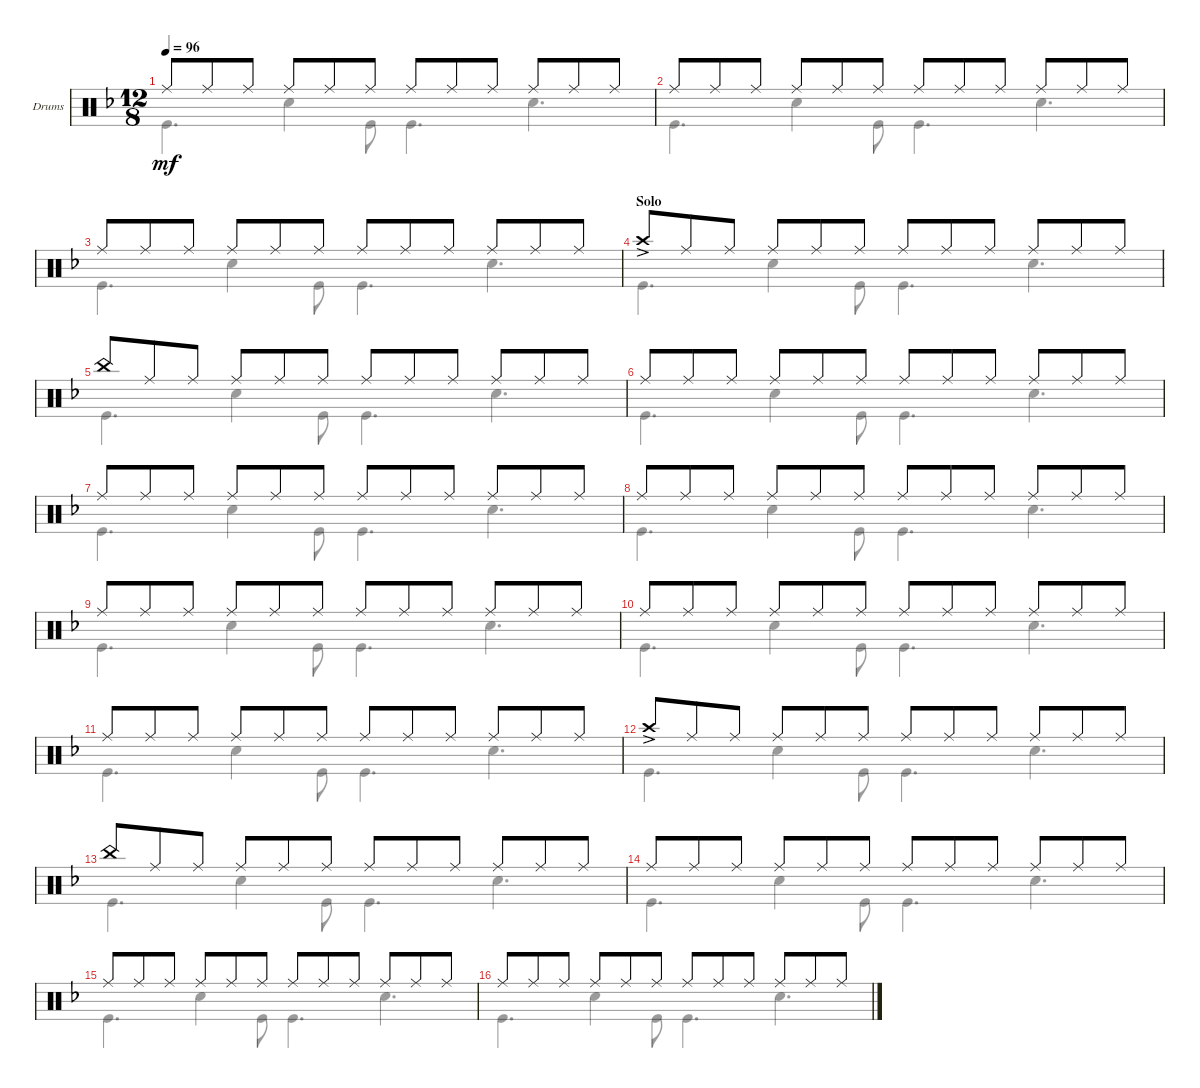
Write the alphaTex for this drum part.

\defaultSystemsLayout 4
\bracketExtendMode nobrackets
\firstSystemTrackNameOrientation horizontal
\otherSystemsTrackNameOrientation horizontal
\track ("Drumkit" "Drums") {multiBarRest instrument percussion}
\staff {score}
\articulation defaults
\voice
\ts (12 8)
\tempo 96
\clef neutral
\ks dminor "Ride (middle)".8{dy mf} "Ride (middle)".8 "Ride (middle)".8 "Ride (middle)".8 "Ride (middle)".8 "Ride (middle)".8 "Ride (middle)".8 "Ride (middle)".8 "Ride (middle)".8 "Ride (middle)".8 "Ride (middle)".8 "Ride (middle)".8
|
"Ride (middle)".8 "Ride (middle)".8 "Ride (middle)".8 "Ride (middle)".8 "Ride (middle)".8 "Ride (middle)".8 "Ride (middle)".8 "Ride (middle)".8 "Ride (middle)".8 "Ride (middle)".8 "Ride (middle)".8 "Ride (middle)".8 |
"Ride (middle)".8 "Ride (middle)".8 "Ride (middle)".8 "Ride (middle)".8 "Ride (middle)".8 "Ride (middle)".8 "Ride (middle)".8 "Ride (middle)".8 "Ride (middle)".8 "Ride (middle)".8 "Ride (middle)".8 "Ride (middle)".8 |
\section ("" "Solo")
"Crash high (hit)"{ac}.8 "Ride (middle)".8 "Ride (middle)".8 "Ride (middle)".8 "Ride (middle)".8 "Ride (middle)".8 "Ride (middle)".8 "Ride (middle)".8 "Ride (middle)".8 "Ride (middle)".8 "Ride (middle)".8 "Ride (middle)".8 |
"China (hit)".8 "Ride (middle)".8 "Ride (middle)".8 "Ride (middle)".8 "Ride (middle)".8 "Ride (middle)".8 "Ride (middle)".8 "Ride (middle)".8 "Ride (middle)".8 "Ride (middle)".8 "Ride (middle)".8 "Ride (middle)".8 |
"Ride (middle)".8 "Ride (middle)".8 "Ride (middle)".8 "Ride (middle)".8 "Ride (middle)".8 "Ride (middle)".8 "Ride (middle)".8 "Ride (middle)".8 "Ride (middle)".8 "Ride (middle)".8 "Ride (middle)".8 "Ride (middle)".8 |
"Ride (middle)".8 "Ride (middle)".8 "Ride (middle)".8 "Ride (middle)".8 "Ride (middle)".8 "Ride (middle)".8 "Ride (middle)".8 "Ride (middle)".8 "Ride (middle)".8 "Ride (middle)".8 "Ride (middle)".8 "Ride (middle)".8 |
"Ride (middle)".8 "Ride (middle)".8 "Ride (middle)".8 "Ride (middle)".8 "Ride (middle)".8 "Ride (middle)".8 "Ride (middle)".8 "Ride (middle)".8 "Ride (middle)".8 "Ride (middle)".8 "Ride (middle)".8 "Ride (middle)".8 |
"Ride (middle)".8 "Ride (middle)".8 "Ride (middle)".8 "Ride (middle)".8 "Ride (middle)".8 "Ride (middle)".8 "Ride (middle)".8 "Ride (middle)".8 "Ride (middle)".8 "Ride (middle)".8 "Ride (middle)".8 "Ride (middle)".8 |
"Ride (middle)".8 "Ride (middle)".8 "Ride (middle)".8 "Ride (middle)".8 "Ride (middle)".8 "Ride (middle)".8 "Ride (middle)".8 "Ride (middle)".8 "Ride (middle)".8 "Ride (middle)".8 "Ride (middle)".8 "Ride (middle)".8 |
"Ride (middle)".8 "Ride (middle)".8 "Ride (middle)".8 "Ride (middle)".8 "Ride (middle)".8 "Ride (middle)".8 "Ride (middle)".8 "Ride (middle)".8 "Ride (middle)".8 "Ride (middle)".8 "Ride (middle)".8 "Ride (middle)".8 |
"Crash high (hit)"{ac}.8 "Ride (middle)".8 "Ride (middle)".8 "Ride (middle)".8 "Ride (middle)".8 "Ride (middle)".8 "Ride (middle)".8 "Ride (middle)".8 "Ride (middle)".8 "Ride (middle)".8 "Ride (middle)".8 "Ride (middle)".8 |
"China (hit)".8 "Ride (middle)".8 "Ride (middle)".8 "Ride (middle)".8 "Ride (middle)".8 "Ride (middle)".8 "Ride (middle)".8 "Ride (middle)".8 "Ride (middle)".8 "Ride (middle)".8 "Ride (middle)".8 "Ride (middle)".8 |
"Ride (middle)".8 "Ride (middle)".8 "Ride (middle)".8 "Ride (middle)".8 "Ride (middle)".8 "Ride (middle)".8 "Ride (middle)".8 "Ride (middle)".8 "Ride (middle)".8 "Ride (middle)".8 "Ride (middle)".8 "Ride (middle)".8 |
"Ride (middle)".8 "Ride (middle)".8 "Ride (middle)".8 "Ride (middle)".8 "Ride (middle)".8 "Ride (middle)".8 "Ride (middle)".8 "Ride (middle)".8 "Ride (middle)".8 "Ride (middle)".8 "Ride (middle)".8 "Ride (middle)".8 |
"Ride (middle)".8 "Ride (middle)".8 "Ride (middle)".8 "Ride (middle)".8 "Ride (middle)".8 "Ride (middle)".8 "Ride (middle)".8 "Ride (middle)".8 "Ride (middle)".8 "Ride (middle)".8 "Ride (middle)".8 "Ride (middle)".8
\voice
\clef neutral
\ottava regular
\simile none
\ks dminor "Kick (hit)".4{d dy mf} "Snare (hit) 2".4 "Kick (hit)".8 "Kick (hit)".4{d} "Snare (hit) 2".4{d}
|
"Kick (hit)".4{d} "Snare (hit) 2".4 "Kick (hit)".8 "Kick (hit)".4{d} "Snare (hit) 2".4{d} |
"Kick (hit)".4{d} "Snare (hit) 2".4 "Kick (hit)".8 "Kick (hit)".4{d} "Snare (hit) 2".4{d} |
"Kick (hit)".4{d} "Snare (hit) 2".4 "Kick (hit)".8 "Kick (hit)".4{d} "Snare (hit) 2".4{d} |
"Kick (hit)".4{d} "Snare (hit) 2".4 "Kick (hit)".8 "Kick (hit)".4{d} "Snare (hit) 2".4{d} |
"Kick (hit)".4{d} "Snare (hit) 2".4 "Kick (hit)".8 "Kick (hit)".4{d} "Snare (hit) 2".4{d} |
"Kick (hit)".4{d} "Snare (hit) 2".4 "Kick (hit)".8 "Kick (hit)".4{d} "Snare (hit) 2".4{d} |
"Kick (hit)".4{d} "Snare (hit) 2".4 "Kick (hit)".8 "Kick (hit)".4{d} "Snare (hit) 2".4{d} |
"Kick (hit)".4{d} "Snare (hit) 2".4 "Kick (hit)".8 "Kick (hit)".4{d} "Snare (hit) 2".4{d} |
"Kick (hit)".4{d} "Snare (hit) 2".4 "Kick (hit)".8 "Kick (hit)".4{d} "Snare (hit) 2".4{d} |
"Kick (hit)".4{d} "Snare (hit) 2".4 "Kick (hit)".8 "Kick (hit)".4{d} "Snare (hit) 2".4{d} |
"Kick (hit)".4{d} "Snare (hit) 2".4 "Kick (hit)".8 "Kick (hit)".4{d} "Snare (hit) 2".4{d} |
"Kick (hit)".4{d} "Snare (hit) 2".4 "Kick (hit)".8 "Kick (hit)".4{d} "Snare (hit) 2".4{d} |
"Kick (hit)".4{d} "Snare (hit) 2".4 "Kick (hit)".8 "Kick (hit)".4{d} "Snare (hit) 2".4{d} |
"Kick (hit)".4{d} "Snare (hit) 2".4 "Kick (hit)".8 "Kick (hit)".4{d} "Snare (hit) 2".4{d} |
"Kick (hit)".4{d} "Snare (hit) 2".4 "Kick (hit)".8 "Kick (hit)".4{d} "Snare (hit) 2".4{d}
